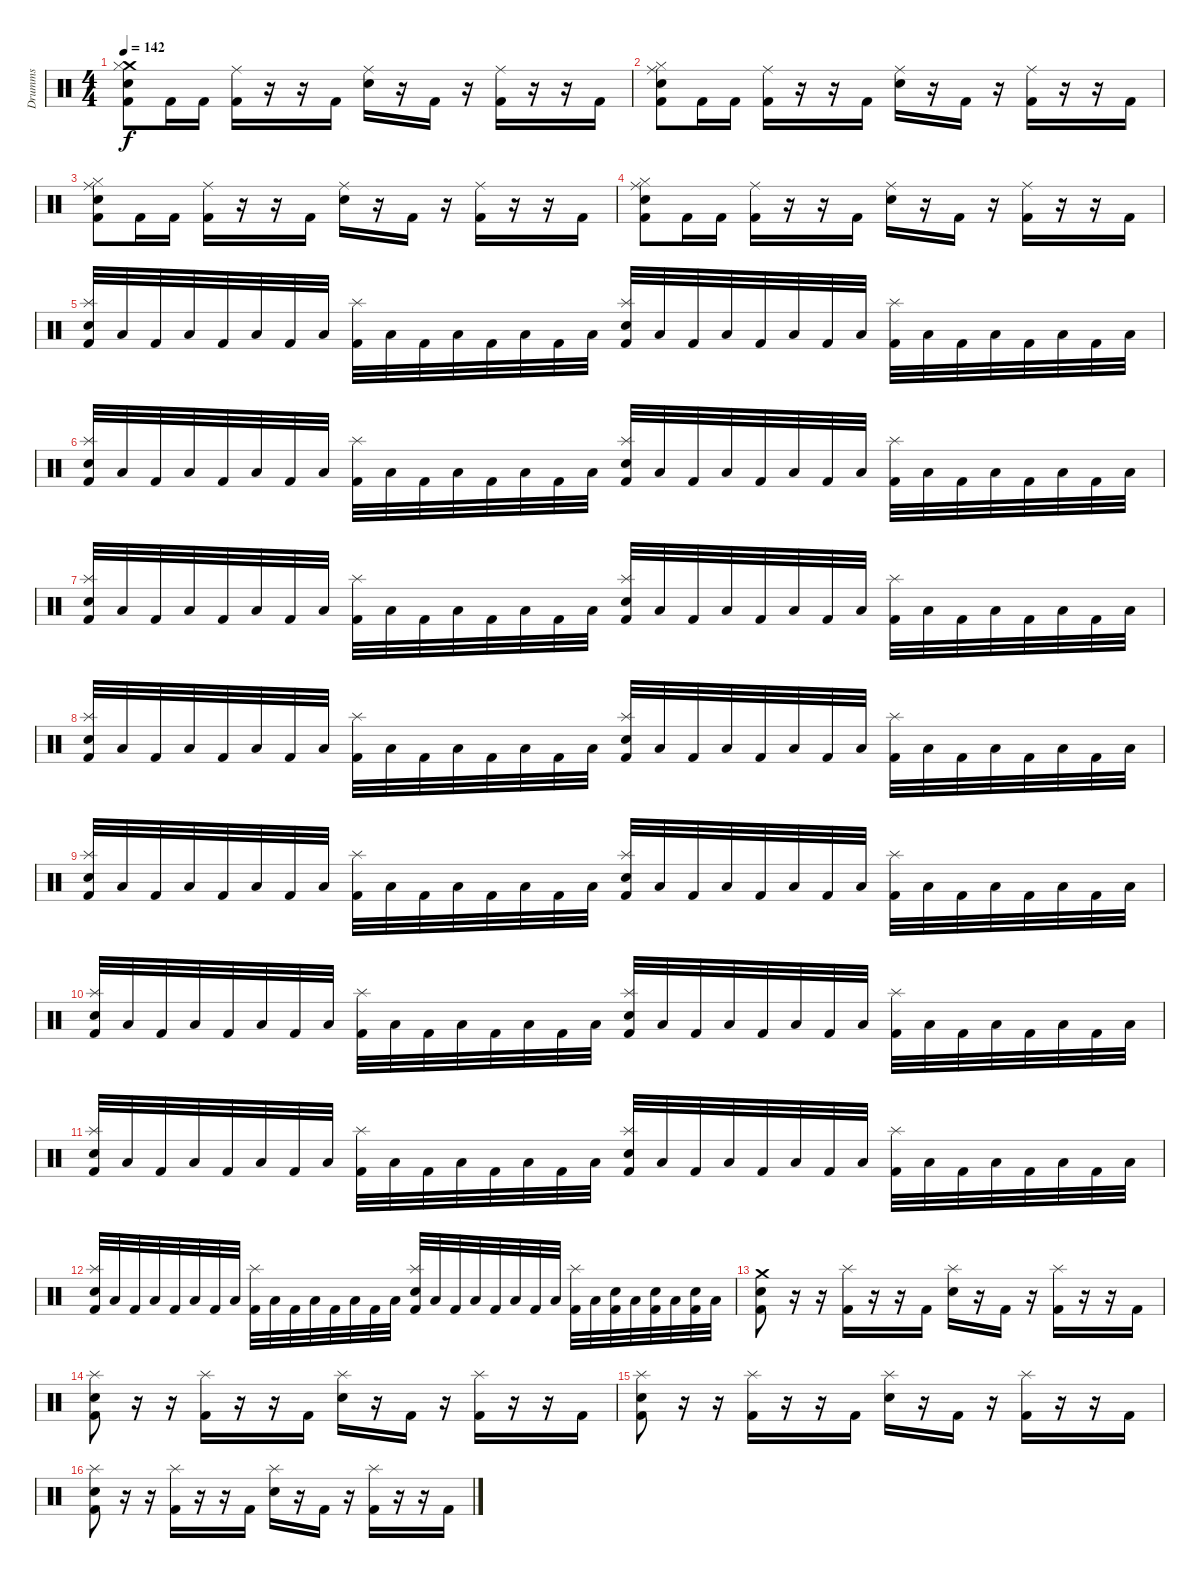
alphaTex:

\track ("Drumms" "Drumms") {instrument percussion}
\staff {score}
\articulation defaults
\ts (4 4)
\tempo 142
\clef neutral
\ks c
("Crash medium (hit)" "Hi-Hat (closed)" "Kick (hit) 2" "Snare (hit) 2").8{dy f} "Kick (hit) 2".16 "Kick (hit) 2".16 ("Ride (middle)" "Kick (hit) 2").16 r.16 r.16 "Kick (hit) 2".16 ("Ride (middle)" "Snare (hit) 2").16 r.16 "Kick (hit) 2".16 r.16 ("Ride (middle)" "Kick (hit) 2").16 r.16 r.16 "Kick (hit) 2".16 |
("Ride (middle)" "Hi-Hat (closed)" "Kick (hit) 2" "Snare (hit) 2").8 "Kick (hit) 2".16 "Kick (hit) 2".16 ("Ride (middle)" "Kick (hit) 2").16 r.16 r.16 "Kick (hit) 2".16 ("Ride (middle)" "Snare (hit) 2").16 r.16 "Kick (hit) 2".16 r.16 ("Ride (middle)" "Kick (hit) 2").16 r.16 r.16 "Kick (hit) 2".16 |
("Ride (middle)" "Hi-Hat (closed)" "Kick (hit) 2" "Snare (hit) 2").8 "Kick (hit) 2".16 "Kick (hit) 2".16 ("Ride (middle)" "Kick (hit) 2").16 r.16 r.16 "Kick (hit) 2".16 ("Ride (middle)" "Snare (hit) 2").16 r.16 "Kick (hit) 2".16 r.16 ("Ride (middle)" "Kick (hit) 2").16 r.16 r.16 "Kick (hit) 2".16 |
("Ride (middle)" "Hi-Hat (closed)" "Kick (hit) 2" "Snare (hit) 2").8 "Kick (hit) 2".16 "Kick (hit) 2".16 ("Ride (middle)" "Kick (hit) 2").16 r.16 r.16 "Kick (hit) 2".16 ("Ride (middle)" "Snare (hit) 2").16 r.16 "Kick (hit) 2".16 r.16 ("Ride (middle)" "Kick (hit) 2").16 r.16 r.16 "Kick (hit) 2".16 |
("Splash (hit)" "Kick (hit) 2" "Electric Snare (hit)").32 "Low Floor Tom (hit)".32 "Kick (hit) 2".32 "Low Floor Tom (hit)".32 "Kick (hit) 2".32 "Low Floor Tom (hit)".32 "Kick (hit) 2".32 "Low Floor Tom (hit)".32 ("Splash (hit)" "Kick (hit) 2").32 "Low Floor Tom (hit)".32 "Kick (hit) 2".32 "Low Floor Tom (hit)".32 "Kick (hit) 2".32 "Low Floor Tom (hit)".32 "Kick (hit) 2".32 "Low Floor Tom (hit)".32 ("Splash (hit)" "Kick (hit) 2" "Electric Snare (hit)").32 "Low Floor Tom (hit)".32 "Kick (hit) 2".32 "Low Floor Tom (hit)".32 "Kick (hit) 2".32 "Low Floor Tom (hit)".32 "Kick (hit) 2".32 "Low Floor Tom (hit)".32 ("Splash (hit)" "Kick (hit) 2").32 "Low Floor Tom (hit)".32 "Kick (hit) 2".32 "Low Floor Tom (hit)".32 "Kick (hit) 2".32 "Low Floor Tom (hit)".32 "Kick (hit) 2".32 "Low Floor Tom (hit)".32 |
("Splash (hit)" "Kick (hit) 2" "Electric Snare (hit)").32 "Low Floor Tom (hit)".32 "Kick (hit) 2".32 "Low Floor Tom (hit)".32 "Kick (hit) 2".32 "Low Floor Tom (hit)".32 "Kick (hit) 2".32 "Low Floor Tom (hit)".32 ("Splash (hit)" "Kick (hit) 2").32 "Low Floor Tom (hit)".32 "Kick (hit) 2".32 "Low Floor Tom (hit)".32 "Kick (hit) 2".32 "Low Floor Tom (hit)".32 "Kick (hit) 2".32 "Low Floor Tom (hit)".32 ("Splash (hit)" "Kick (hit) 2" "Electric Snare (hit)").32 "Low Floor Tom (hit)".32 "Kick (hit) 2".32 "Low Floor Tom (hit)".32 "Kick (hit) 2".32 "Low Floor Tom (hit)".32 "Kick (hit) 2".32 "Low Floor Tom (hit)".32 ("Splash (hit)" "Kick (hit) 2").32 "Low Floor Tom (hit)".32 "Kick (hit) 2".32 "Low Floor Tom (hit)".32 "Kick (hit) 2".32 "Low Floor Tom (hit)".32 "Kick (hit) 2".32 "Low Floor Tom (hit)".32 |
("Splash (hit)" "Kick (hit) 2" "Electric Snare (hit)").32 "Low Floor Tom (hit)".32 "Kick (hit) 2".32 "Low Floor Tom (hit)".32 "Kick (hit) 2".32 "Low Floor Tom (hit)".32 "Kick (hit) 2".32 "Low Floor Tom (hit)".32 ("Splash (hit)" "Kick (hit) 2").32 "Low Floor Tom (hit)".32 "Kick (hit) 2".32 "Low Floor Tom (hit)".32 "Kick (hit) 2".32 "Low Floor Tom (hit)".32 "Kick (hit) 2".32 "Low Floor Tom (hit)".32 ("Splash (hit)" "Kick (hit) 2" "Electric Snare (hit)").32 "Low Floor Tom (hit)".32 "Kick (hit) 2".32 "Low Floor Tom (hit)".32 "Kick (hit) 2".32 "Low Floor Tom (hit)".32 "Kick (hit) 2".32 "Low Floor Tom (hit)".32 ("Splash (hit)" "Kick (hit) 2").32 "Low Floor Tom (hit)".32 "Kick (hit) 2".32 "Low Floor Tom (hit)".32 "Kick (hit) 2".32 "Low Floor Tom (hit)".32 "Kick (hit) 2".32 "Low Floor Tom (hit)".32 |
("Splash (hit)" "Kick (hit) 2" "Electric Snare (hit)").32 "Low Floor Tom (hit)".32 "Kick (hit) 2".32 "Low Floor Tom (hit)".32 "Kick (hit) 2".32 "Low Floor Tom (hit)".32 "Kick (hit) 2".32 "Low Floor Tom (hit)".32 ("Splash (hit)" "Kick (hit) 2").32 "Low Floor Tom (hit)".32 "Kick (hit) 2".32 "Low Floor Tom (hit)".32 "Kick (hit) 2".32 "Low Floor Tom (hit)".32 "Kick (hit) 2".32 "Low Floor Tom (hit)".32 ("Splash (hit)" "Kick (hit) 2" "Electric Snare (hit)").32 "Low Floor Tom (hit)".32 "Kick (hit) 2".32 "Low Floor Tom (hit)".32 "Kick (hit) 2".32 "Low Floor Tom (hit)".32 "Kick (hit) 2".32 "Low Floor Tom (hit)".32 ("Splash (hit)" "Kick (hit) 2").32 "Low Floor Tom (hit)".32 "Kick (hit) 2".32 "Low Floor Tom (hit)".32 "Kick (hit) 2".32 "Low Floor Tom (hit)".32 "Kick (hit) 2".32 "Low Floor Tom (hit)".32 |
("Splash (hit)" "Kick (hit) 2" "Electric Snare (hit)").32 "Low Floor Tom (hit)".32 "Kick (hit) 2".32 "Low Floor Tom (hit)".32 "Kick (hit) 2".32 "Low Floor Tom (hit)".32 "Kick (hit) 2".32 "Low Floor Tom (hit)".32 ("Splash (hit)" "Kick (hit) 2").32 "Low Floor Tom (hit)".32 "Kick (hit) 2".32 "Low Floor Tom (hit)".32 "Kick (hit) 2".32 "Low Floor Tom (hit)".32 "Kick (hit) 2".32 "Low Floor Tom (hit)".32 ("Splash (hit)" "Kick (hit) 2" "Electric Snare (hit)").32 "Low Floor Tom (hit)".32 "Kick (hit) 2".32 "Low Floor Tom (hit)".32 "Kick (hit) 2".32 "Low Floor Tom (hit)".32 "Kick (hit) 2".32 "Low Floor Tom (hit)".32 ("Splash (hit)" "Kick (hit) 2").32 "Low Floor Tom (hit)".32 "Kick (hit) 2".32 "Low Floor Tom (hit)".32 "Kick (hit) 2".32 "Low Floor Tom (hit)".32 "Kick (hit) 2".32 "Low Floor Tom (hit)".32 |
("Splash (hit)" "Kick (hit) 2" "Electric Snare (hit)").32 "Low Floor Tom (hit)".32 "Kick (hit) 2".32 "Low Floor Tom (hit)".32 "Kick (hit) 2".32 "Low Floor Tom (hit)".32 "Kick (hit) 2".32 "Low Floor Tom (hit)".32 ("Splash (hit)" "Kick (hit) 2").32 "Low Floor Tom (hit)".32 "Kick (hit) 2".32 "Low Floor Tom (hit)".32 "Kick (hit) 2".32 "Low Floor Tom (hit)".32 "Kick (hit) 2".32 "Low Floor Tom (hit)".32 ("Splash (hit)" "Kick (hit) 2" "Electric Snare (hit)").32 "Low Floor Tom (hit)".32 "Kick (hit) 2".32 "Low Floor Tom (hit)".32 "Kick (hit) 2".32 "Low Floor Tom (hit)".32 "Kick (hit) 2".32 "Low Floor Tom (hit)".32 ("Splash (hit)" "Kick (hit) 2").32 "Low Floor Tom (hit)".32 "Kick (hit) 2".32 "Low Floor Tom (hit)".32 "Kick (hit) 2".32 "Low Floor Tom (hit)".32 "Kick (hit) 2".32 "Low Floor Tom (hit)".32 |
("Splash (hit)" "Kick (hit) 2" "Electric Snare (hit)").32 "Low Floor Tom (hit)".32 "Kick (hit) 2".32 "Low Floor Tom (hit)".32 "Kick (hit) 2".32 "Low Floor Tom (hit)".32 "Kick (hit) 2".32 "Low Floor Tom (hit)".32 ("Splash (hit)" "Kick (hit) 2").32 "Low Floor Tom (hit)".32 "Kick (hit) 2".32 "Low Floor Tom (hit)".32 "Kick (hit) 2".32 "Low Floor Tom (hit)".32 "Kick (hit) 2".32 "Low Floor Tom (hit)".32 ("Splash (hit)" "Kick (hit) 2" "Electric Snare (hit)").32 "Low Floor Tom (hit)".32 "Kick (hit) 2".32 "Low Floor Tom (hit)".32 "Kick (hit) 2".32 "Low Floor Tom (hit)".32 "Kick (hit) 2".32 "Low Floor Tom (hit)".32 ("Splash (hit)" "Kick (hit) 2").32 "Low Floor Tom (hit)".32 "Kick (hit) 2".32 "Low Floor Tom (hit)".32 "Kick (hit) 2".32 "Low Floor Tom (hit)".32 "Kick (hit) 2".32 "Low Floor Tom (hit)".32 |
("Splash (hit)" "Kick (hit) 2" "Electric Snare (hit)").32 "Low Floor Tom (hit)".32 "Kick (hit) 2".32 "Low Floor Tom (hit)".32 "Kick (hit) 2".32 "Low Floor Tom (hit)".32 "Kick (hit) 2".32 "Low Floor Tom (hit)".32 ("Splash (hit)" "Kick (hit) 2").32 "Low Floor Tom (hit)".32 "Kick (hit) 2".32 "Low Floor Tom (hit)".32 "Kick (hit) 2".32 "Low Floor Tom (hit)".32 "Kick (hit) 2".32 "Low Floor Tom (hit)".32 ("Splash (hit)" "Kick (hit) 2" "Electric Snare (hit)").32 "Low Floor Tom (hit)".32 "Kick (hit) 2".32 "Low Floor Tom (hit)".32 "Kick (hit) 2".32 "Low Floor Tom (hit)".32 "Kick (hit) 2".32 "Low Floor Tom (hit)".32 ("Splash (hit)" "Kick (hit) 2").32 "Low Floor Tom (hit)".32 ("Electric Snare (hit)" "Kick (hit) 2").32 "Low Floor Tom (hit)".32 ("Electric Snare (hit)" "Kick (hit) 2").32 "Low Floor Tom (hit)".32 ("Electric Snare (hit)" "Kick (hit) 2").32 "Low Floor Tom (hit)".32 |
("Crash medium (hit)" "Kick (hit) 2" "Snare (hit) 2").8 r.16 r.16 ("Splash (hit)" "Kick (hit) 2").16 r.16 r.16 "Kick (hit) 2".16 ("Splash (hit)" "Snare (hit) 2").16 r.16 "Kick (hit) 2".16 r.16 ("Splash (hit)" "Kick (hit) 2").16 r.16 r.16 "Kick (hit) 2".16 |
("Splash (hit)" "Kick (hit) 2" "Snare (hit) 2").8 r.16 r.16 ("Splash (hit)" "Kick (hit) 2").16 r.16 r.16 "Kick (hit) 2".16 ("Splash (hit)" "Snare (hit) 2").16 r.16 "Kick (hit) 2".16 r.16 ("Splash (hit)" "Kick (hit) 2").16 r.16 r.16 "Kick (hit) 2".16 |
("Splash (hit)" "Kick (hit) 2" "Snare (hit) 2").8 r.16 r.16 ("Splash (hit)" "Kick (hit) 2").16 r.16 r.16 "Kick (hit) 2".16 ("Splash (hit)" "Snare (hit) 2").16 r.16 "Kick (hit) 2".16 r.16 ("Splash (hit)" "Kick (hit) 2").16 r.16 r.16 "Kick (hit) 2".16 |
("Splash (hit)" "Kick (hit) 2" "Snare (hit) 2").8 r.16 r.16 ("Splash (hit)" "Kick (hit) 2").16 r.16 r.16 "Kick (hit) 2".16 ("Splash (hit)" "Snare (hit) 2").16 r.16 "Kick (hit) 2".16 r.16 ("Splash (hit)" "Kick (hit) 2").16 r.16 r.16 "Kick (hit) 2".16
